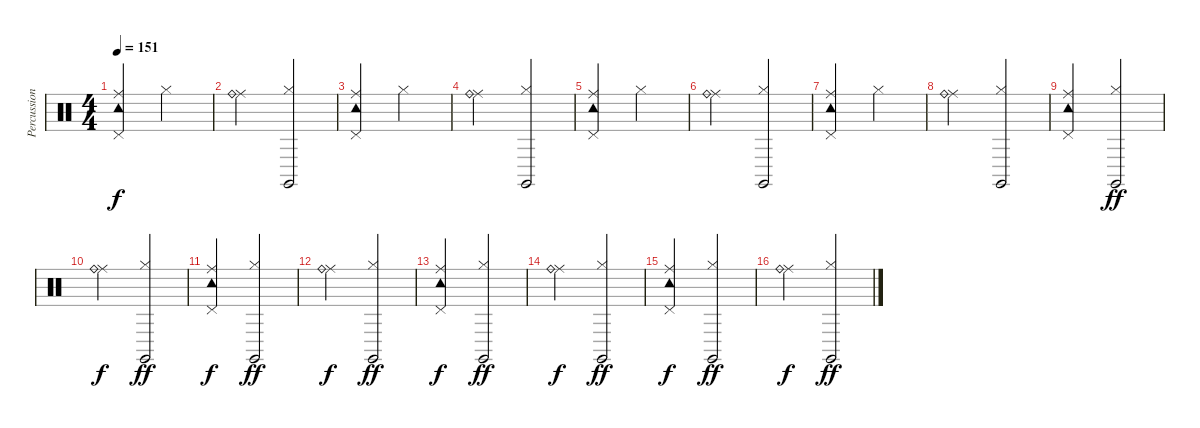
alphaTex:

\track ("Percussion" "Percussion") {instrument percussion}
\staff {score}
\articulation defaults
\ts (4 4)
\tempo 151
\clef neutral
\ks c
("Ride (middle)" "Tambourine (hit)" "Pedal Hi-Hat (hit)").2{dy f} "Hi-Hat (closed)".2 |
("Ride (middle)" "Ride (bell)").2 ("Hi-Hat (closed)" "Claves (hit)").2 |
("Ride (middle)" "Tambourine (hit)" "Pedal Hi-Hat (hit)").2 "Hi-Hat (closed)".2 |
("Ride (middle)" "Ride (bell)").2 ("Hi-Hat (closed)" "Claves (hit)").2 |
("Ride (middle)" "Tambourine (hit)" "Pedal Hi-Hat (hit)").2 "Hi-Hat (closed)".2 |
("Ride (middle)" "Ride (bell)").2 ("Hi-Hat (closed)" "Claves (hit)").2 |
("Ride (middle)" "Tambourine (hit)" "Pedal Hi-Hat (hit)").2 "Hi-Hat (closed)".2 |
("Ride (middle)" "Ride (bell)").2 ("Hi-Hat (closed)" "Claves (hit)").2 |
("Ride (middle)" "Tambourine (hit)" "Pedal Hi-Hat (hit)").2 ("Hi-Hat (closed)" "Claves (hit)").2{dy ff} |
("Ride (middle)" "Ride (bell)").2{dy f} ("Hi-Hat (closed)" "Claves (hit)").2{dy ff} |
("Ride (middle)" "Tambourine (hit)" "Pedal Hi-Hat (hit)").2{dy f} ("Hi-Hat (closed)" "Claves (hit)").2{dy ff} |
("Ride (middle)" "Ride (bell)").2{dy f} ("Hi-Hat (closed)" "Claves (hit)").2{dy ff} |
("Ride (middle)" "Tambourine (hit)" "Pedal Hi-Hat (hit)").2{dy f} ("Hi-Hat (closed)" "Claves (hit)").2{dy ff} |
("Ride (middle)" "Ride (bell)").2{dy f} ("Hi-Hat (closed)" "Claves (hit)").2{dy ff} |
("Ride (middle)" "Tambourine (hit)" "Pedal Hi-Hat (hit)").2{dy f} ("Hi-Hat (closed)" "Claves (hit)").2{dy ff} |
("Ride (middle)" "Ride (bell)").2{dy f} ("Hi-Hat (closed)" "Claves (hit)").2{dy ff}
